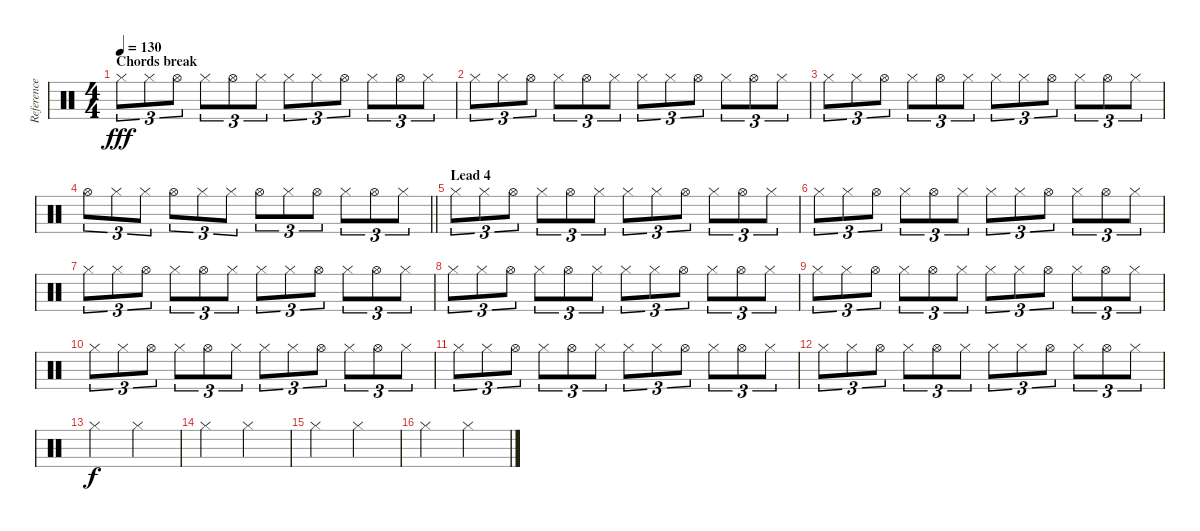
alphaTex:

\track ("Reference metronome" "Reference ") {instrument percussion}
\staff {score}
\articulation defaults
\ts (4 4)
\section ("" "Chords break")
\tempo 130
\clef neutral
\ks c "Hi-Hat (closed)".8{tu (3 2) dy fff} "Hi-Hat (closed)".8{tu (3 2)} "Hi-Hat (open)".8{tu (3 2)} "Hi-Hat (closed)".8{tu (3 2)} "Hi-Hat (open)".8{tu (3 2)} "Hi-Hat (closed)".8{tu (3 2)} "Hi-Hat (closed)".8{tu (3 2)} "Hi-Hat (closed)".8{tu (3 2)} "Hi-Hat (open)".8{tu (3 2)} "Hi-Hat (closed)".8{tu (3 2)} "Hi-Hat (open)".8{tu (3 2)} "Hi-Hat (closed)".8{tu (3 2)}
|
"Hi-Hat (closed)".8{tu (3 2)} "Hi-Hat (closed)".8{tu (3 2)} "Hi-Hat (open)".8{tu (3 2)} "Hi-Hat (closed)".8{tu (3 2)} "Hi-Hat (open)".8{tu (3 2)} "Hi-Hat (closed)".8{tu (3 2)} "Hi-Hat (closed)".8{tu (3 2)} "Hi-Hat (closed)".8{tu (3 2)} "Hi-Hat (open)".8{tu (3 2)} "Hi-Hat (closed)".8{tu (3 2)} "Hi-Hat (open)".8{tu (3 2)} "Hi-Hat (closed)".8{tu (3 2)} |
"Hi-Hat (closed)".8{tu (3 2)} "Hi-Hat (closed)".8{tu (3 2)} "Hi-Hat (open)".8{tu (3 2)} "Hi-Hat (closed)".8{tu (3 2)} "Hi-Hat (open)".8{tu (3 2)} "Hi-Hat (closed)".8{tu (3 2)} "Hi-Hat (closed)".8{tu (3 2)} "Hi-Hat (closed)".8{tu (3 2)} "Hi-Hat (open)".8{tu (3 2)} "Hi-Hat (closed)".8{tu (3 2)} "Hi-Hat (open)".8{tu (3 2)} "Hi-Hat (closed)".8{tu (3 2)} |
\barLineRight lightlight "Hi-Hat (open)".8{tu (3 2)} "Hi-Hat (closed)".8{tu (3 2)} "Hi-Hat (closed)".8{tu (3 2)} "Hi-Hat (open)".8{tu (3 2)} "Hi-Hat (closed)".8{tu (3 2)} "Hi-Hat (closed)".8{tu (3 2)} "Hi-Hat (open)".8{tu (3 2)} "Hi-Hat (closed)".8{tu (3 2)} "Hi-Hat (open)".8{tu (3 2)} "Hi-Hat (closed)".8{tu (3 2)} "Hi-Hat (open)".8{tu (3 2)} "Hi-Hat (closed)".8{tu (3 2)}
|
\section ("" "Lead 4")
"Hi-Hat (closed)".8{tu (3 2)} "Hi-Hat (closed)".8{tu (3 2)} "Hi-Hat (open)".8{tu (3 2)} "Hi-Hat (closed)".8{tu (3 2)} "Hi-Hat (open)".8{tu (3 2)} "Hi-Hat (closed)".8{tu (3 2)} "Hi-Hat (closed)".8{tu (3 2)} "Hi-Hat (closed)".8{tu (3 2)} "Hi-Hat (open)".8{tu (3 2)} "Hi-Hat (closed)".8{tu (3 2)} "Hi-Hat (open)".8{tu (3 2)} "Hi-Hat (closed)".8{tu (3 2)} |
"Hi-Hat (closed)".8{tu (3 2)} "Hi-Hat (closed)".8{tu (3 2)} "Hi-Hat (open)".8{tu (3 2)} "Hi-Hat (closed)".8{tu (3 2)} "Hi-Hat (open)".8{tu (3 2)} "Hi-Hat (closed)".8{tu (3 2)} "Hi-Hat (closed)".8{tu (3 2)} "Hi-Hat (closed)".8{tu (3 2)} "Hi-Hat (open)".8{tu (3 2)} "Hi-Hat (closed)".8{tu (3 2)} "Hi-Hat (open)".8{tu (3 2)} "Hi-Hat (closed)".8{tu (3 2)} |
"Hi-Hat (closed)".8{tu (3 2)} "Hi-Hat (closed)".8{tu (3 2)} "Hi-Hat (open)".8{tu (3 2)} "Hi-Hat (closed)".8{tu (3 2)} "Hi-Hat (open)".8{tu (3 2)} "Hi-Hat (closed)".8{tu (3 2)} "Hi-Hat (closed)".8{tu (3 2)} "Hi-Hat (closed)".8{tu (3 2)} "Hi-Hat (open)".8{tu (3 2)} "Hi-Hat (closed)".8{tu (3 2)} "Hi-Hat (open)".8{tu (3 2)} "Hi-Hat (closed)".8{tu (3 2)} |
"Hi-Hat (closed)".8{tu (3 2)} "Hi-Hat (closed)".8{tu (3 2)} "Hi-Hat (open)".8{tu (3 2)} "Hi-Hat (closed)".8{tu (3 2)} "Hi-Hat (open)".8{tu (3 2)} "Hi-Hat (closed)".8{tu (3 2)} "Hi-Hat (closed)".8{tu (3 2)} "Hi-Hat (closed)".8{tu (3 2)} "Hi-Hat (open)".8{tu (3 2)} "Hi-Hat (closed)".8{tu (3 2)} "Hi-Hat (open)".8{tu (3 2)} "Hi-Hat (closed)".8{tu (3 2)} |
"Hi-Hat (closed)".8{tu (3 2)} "Hi-Hat (closed)".8{tu (3 2)} "Hi-Hat (open)".8{tu (3 2)} "Hi-Hat (closed)".8{tu (3 2)} "Hi-Hat (open)".8{tu (3 2)} "Hi-Hat (closed)".8{tu (3 2)} "Hi-Hat (closed)".8{tu (3 2)} "Hi-Hat (closed)".8{tu (3 2)} "Hi-Hat (open)".8{tu (3 2)} "Hi-Hat (closed)".8{tu (3 2)} "Hi-Hat (open)".8{tu (3 2)} "Hi-Hat (closed)".8{tu (3 2)} |
"Hi-Hat (closed)".8{tu (3 2)} "Hi-Hat (closed)".8{tu (3 2)} "Hi-Hat (open)".8{tu (3 2)} "Hi-Hat (closed)".8{tu (3 2)} "Hi-Hat (open)".8{tu (3 2)} "Hi-Hat (closed)".8{tu (3 2)} "Hi-Hat (closed)".8{tu (3 2)} "Hi-Hat (closed)".8{tu (3 2)} "Hi-Hat (open)".8{tu (3 2)} "Hi-Hat (closed)".8{tu (3 2)} "Hi-Hat (open)".8{tu (3 2)} "Hi-Hat (closed)".8{tu (3 2)} |
"Hi-Hat (closed)".8{tu (3 2)} "Hi-Hat (closed)".8{tu (3 2)} "Hi-Hat (open)".8{tu (3 2)} "Hi-Hat (closed)".8{tu (3 2)} "Hi-Hat (open)".8{tu (3 2)} "Hi-Hat (closed)".8{tu (3 2)} "Hi-Hat (closed)".8{tu (3 2)} "Hi-Hat (closed)".8{tu (3 2)} "Hi-Hat (open)".8{tu (3 2)} "Hi-Hat (closed)".8{tu (3 2)} "Hi-Hat (open)".8{tu (3 2)} "Hi-Hat (closed)".8{tu (3 2)} |
"Hi-Hat (closed)".8{tu (3 2)} "Hi-Hat (closed)".8{tu (3 2)} "Hi-Hat (open)".8{tu (3 2)} "Hi-Hat (closed)".8{tu (3 2)} "Hi-Hat (open)".8{tu (3 2)} "Hi-Hat (closed)".8{tu (3 2)} "Hi-Hat (closed)".8{tu (3 2)} "Hi-Hat (closed)".8{tu (3 2)} "Hi-Hat (open)".8{tu (3 2)} "Hi-Hat (closed)".8{tu (3 2)} "Hi-Hat (open)".8{tu (3 2)} "Hi-Hat (closed)".8{tu (3 2)} |
"Hi-Hat (closed)".2{dy f} "Hi-Hat (closed)".2 |
"Hi-Hat (closed)".2 "Hi-Hat (closed)".2 |
"Hi-Hat (closed)".2 "Hi-Hat (closed)".2 |
"Hi-Hat (closed)".2 "Hi-Hat (closed)".2
